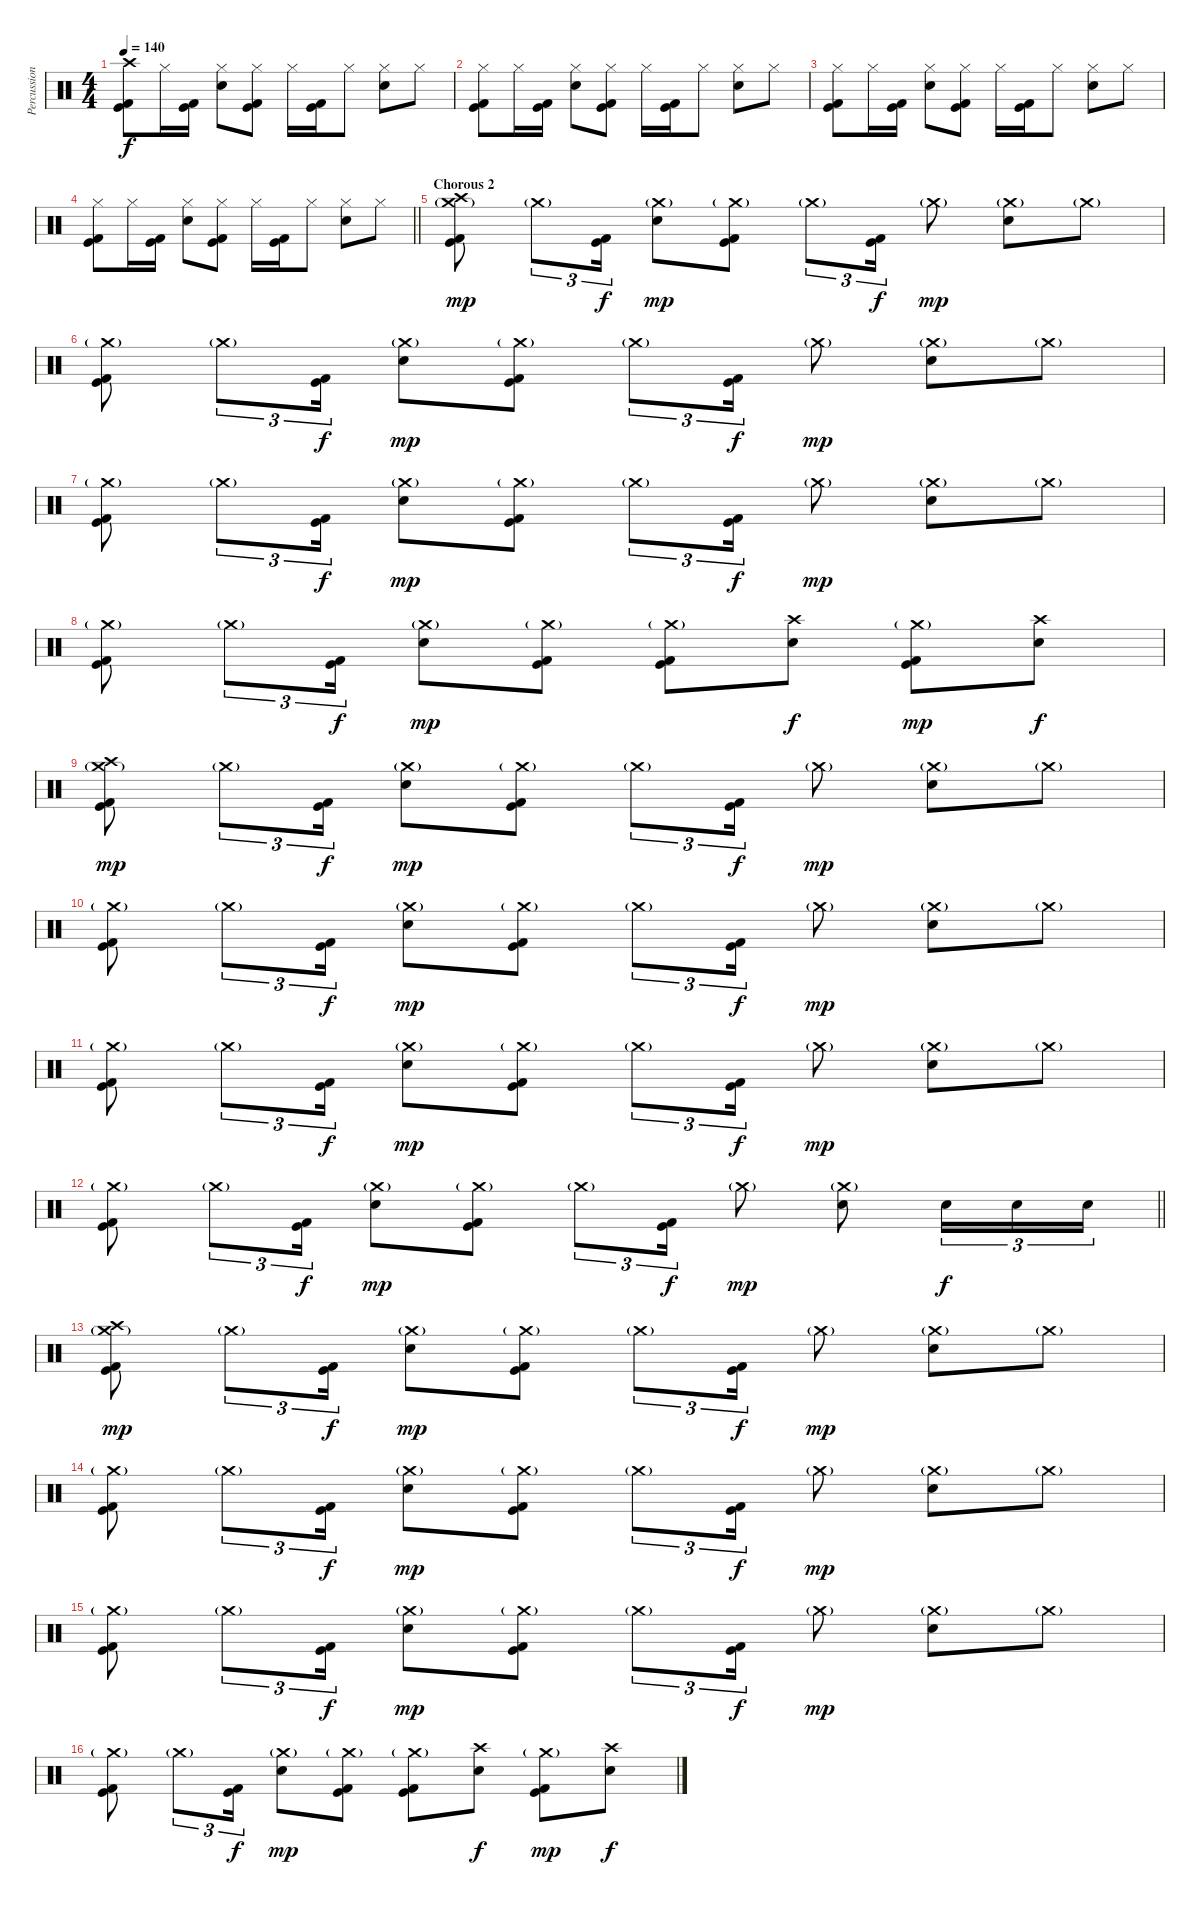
\track ("Percussion" "Percussion") {instrument percussion}
\staff {score}
\articulation defaults
\ts (4 4)
\tempo 140
\clef neutral
\ks c
("Crash high (hit)" "Kick (hit)" "Kick (hit) 2").8{dy f} "Hi-Hat (closed)".16 ("Kick (hit)" "Kick (hit) 2").16 ("Hi-Hat (closed)" "Electric Snare (hit)").8 ("Hi-Hat (closed)" "Kick (hit)" "Kick (hit) 2").8 "Hi-Hat (closed)".16 ("Kick (hit)" "Kick (hit) 2").16 "Hi-Hat (closed)".8 ("Hi-Hat (closed)" "Electric Snare (hit)").8 "Hi-Hat (closed)".8 |
("Hi-Hat (closed)" "Kick (hit)" "Kick (hit) 2").8 "Hi-Hat (closed)".16 ("Kick (hit)" "Kick (hit) 2").16 ("Hi-Hat (closed)" "Electric Snare (hit)").8 ("Hi-Hat (closed)" "Kick (hit)" "Kick (hit) 2").8 "Hi-Hat (closed)".16 ("Kick (hit)" "Kick (hit) 2").16 "Hi-Hat (closed)".8 ("Hi-Hat (closed)" "Electric Snare (hit)").8 "Hi-Hat (closed)".8 |
("Hi-Hat (closed)" "Kick (hit)" "Kick (hit) 2").8 "Hi-Hat (closed)".16 ("Kick (hit)" "Kick (hit) 2").16 ("Hi-Hat (closed)" "Electric Snare (hit)").8 ("Hi-Hat (closed)" "Kick (hit)" "Kick (hit) 2").8 "Hi-Hat (closed)".16 ("Kick (hit)" "Kick (hit) 2").16 "Hi-Hat (closed)".8 ("Hi-Hat (closed)" "Electric Snare (hit)").8 "Hi-Hat (closed)".8 |
\barLineRight lightlight
("Hi-Hat (closed)" "Kick (hit)" "Kick (hit) 2").8 "Hi-Hat (closed)".16 ("Kick (hit)" "Kick (hit) 2").16 ("Hi-Hat (closed)" "Electric Snare (hit)").8 ("Hi-Hat (closed)" "Kick (hit)" "Kick (hit) 2").8 "Hi-Hat (closed)".16 ("Kick (hit)" "Kick (hit) 2").16 "Hi-Hat (closed)".8 ("Hi-Hat (closed)" "Electric Snare (hit)").8 "Hi-Hat (closed)".8 |
\section ("" "Chorous 2")
("Crash medium (hit)"{g} "Crash high (hit)" "Kick (hit)" "Kick (hit) 2").8{dy mp} "Crash medium (hit)"{g}.8{tu (3 2)} ("Kick (hit)" "Kick (hit) 2").16{tu (3 2) dy f} ("Crash medium (hit)"{g} "Electric Snare (hit)").8{dy mp} ("Crash medium (hit)"{g} "Kick (hit)" "Kick (hit) 2").8 "Crash medium (hit)"{g}.8{tu (3 2)} ("Kick (hit)" "Kick (hit) 2").16{tu (3 2) dy f} "Crash medium (hit)"{g}.8{dy mp} ("Crash medium (hit)"{g} "Electric Snare (hit)").8 "Crash medium (hit)"{g}.8 |
("Crash medium (hit)"{g} "Kick (hit)" "Kick (hit) 2").8 "Crash medium (hit)"{g}.8{tu (3 2)} ("Kick (hit)" "Kick (hit) 2").16{tu (3 2) dy f} ("Crash medium (hit)"{g} "Electric Snare (hit)").8{dy mp} ("Crash medium (hit)"{g} "Kick (hit)" "Kick (hit) 2").8 "Crash medium (hit)"{g}.8{tu (3 2)} ("Kick (hit)" "Kick (hit) 2").16{tu (3 2) dy f} "Crash medium (hit)"{g}.8{dy mp} ("Crash medium (hit)"{g} "Electric Snare (hit)").8 "Crash medium (hit)"{g}.8 |
("Crash medium (hit)"{g} "Kick (hit)" "Kick (hit) 2").8 "Crash medium (hit)"{g}.8{tu (3 2)} ("Kick (hit)" "Kick (hit) 2").16{tu (3 2) dy f} ("Crash medium (hit)"{g} "Electric Snare (hit)").8{dy mp} ("Crash medium (hit)"{g} "Kick (hit)" "Kick (hit) 2").8 "Crash medium (hit)"{g}.8{tu (3 2)} ("Kick (hit)" "Kick (hit) 2").16{tu (3 2) dy f} "Crash medium (hit)"{g}.8{dy mp} ("Crash medium (hit)"{g} "Electric Snare (hit)").8 "Crash medium (hit)"{g}.8 |
("Crash medium (hit)"{g} "Kick (hit)" "Kick (hit) 2").8 "Crash medium (hit)"{g}.8{tu (3 2)} ("Kick (hit)" "Kick (hit) 2").16{tu (3 2) dy f} ("Crash medium (hit)"{g} "Electric Snare (hit)").8{dy mp} ("Crash medium (hit)"{g} "Kick (hit)" "Kick (hit) 2").8 ("Crash medium (hit)"{g} "Kick (hit)" "Kick (hit) 2").8 ("Crash high (hit)" "Electric Snare (hit)").8{dy f} ("Crash medium (hit)"{g} "Kick (hit)" "Kick (hit) 2").8{dy mp} ("Crash high (hit)" "Electric Snare (hit)").8{dy f} |
("Crash medium (hit)"{g} "Crash high (hit)" "Kick (hit)" "Kick (hit) 2").8{dy mp} "Crash medium (hit)"{g}.8{tu (3 2)} ("Kick (hit)" "Kick (hit) 2").16{tu (3 2) dy f} ("Crash medium (hit)"{g} "Electric Snare (hit)").8{dy mp} ("Crash medium (hit)"{g} "Kick (hit)" "Kick (hit) 2").8 "Crash medium (hit)"{g}.8{tu (3 2)} ("Kick (hit)" "Kick (hit) 2").16{tu (3 2) dy f} "Crash medium (hit)"{g}.8{dy mp} ("Crash medium (hit)"{g} "Electric Snare (hit)").8 "Crash medium (hit)"{g}.8 |
("Crash medium (hit)"{g} "Kick (hit)" "Kick (hit) 2").8 "Crash medium (hit)"{g}.8{tu (3 2)} ("Kick (hit)" "Kick (hit) 2").16{tu (3 2) dy f} ("Crash medium (hit)"{g} "Electric Snare (hit)").8{dy mp} ("Crash medium (hit)"{g} "Kick (hit)" "Kick (hit) 2").8 "Crash medium (hit)"{g}.8{tu (3 2)} ("Kick (hit)" "Kick (hit) 2").16{tu (3 2) dy f} "Crash medium (hit)"{g}.8{dy mp} ("Crash medium (hit)"{g} "Electric Snare (hit)").8 "Crash medium (hit)"{g}.8 |
("Crash medium (hit)"{g} "Kick (hit)" "Kick (hit) 2").8 "Crash medium (hit)"{g}.8{tu (3 2)} ("Kick (hit)" "Kick (hit) 2").16{tu (3 2) dy f} ("Crash medium (hit)"{g} "Electric Snare (hit)").8{dy mp} ("Crash medium (hit)"{g} "Kick (hit)" "Kick (hit) 2").8 "Crash medium (hit)"{g}.8{tu (3 2)} ("Kick (hit)" "Kick (hit) 2").16{tu (3 2) dy f} "Crash medium (hit)"{g}.8{dy mp} ("Crash medium (hit)"{g} "Electric Snare (hit)").8 "Crash medium (hit)"{g}.8 |
\barLineRight lightlight
("Crash medium (hit)"{g} "Kick (hit)" "Kick (hit) 2").8 "Crash medium (hit)"{g}.8{tu (3 2)} ("Kick (hit)" "Kick (hit) 2").16{tu (3 2) dy f} ("Crash medium (hit)"{g} "Electric Snare (hit)").8{dy mp} ("Crash medium (hit)"{g} "Kick (hit)" "Kick (hit) 2").8 "Crash medium (hit)"{g}.8{tu (3 2)} ("Kick (hit)" "Kick (hit) 2").16{tu (3 2) dy f} "Crash medium (hit)"{g}.8{dy mp} ("Crash medium (hit)"{g} "Electric Snare (hit)").8 "Electric Snare (hit)".16{tu (3 2) dy f} "Electric Snare (hit)".16{tu (3 2)} "Electric Snare (hit)".16{tu (3 2)} |
\section ("" "")
("Crash medium (hit)"{g} "Crash high (hit)" "Kick (hit)" "Kick (hit) 2").8{dy mp} "Crash medium (hit)"{g}.8{tu (3 2)} ("Kick (hit)" "Kick (hit) 2").16{tu (3 2) dy f} ("Crash medium (hit)"{g} "Electric Snare (hit)").8{dy mp} ("Crash medium (hit)"{g} "Kick (hit)" "Kick (hit) 2").8 "Crash medium (hit)"{g}.8{tu (3 2)} ("Kick (hit)" "Kick (hit) 2").16{tu (3 2) dy f} "Crash medium (hit)"{g}.8{dy mp} ("Crash medium (hit)"{g} "Electric Snare (hit)").8 "Crash medium (hit)"{g}.8 |
("Crash medium (hit)"{g} "Kick (hit)" "Kick (hit) 2").8 "Crash medium (hit)"{g}.8{tu (3 2)} ("Kick (hit)" "Kick (hit) 2").16{tu (3 2) dy f} ("Crash medium (hit)"{g} "Electric Snare (hit)").8{dy mp} ("Crash medium (hit)"{g} "Kick (hit)" "Kick (hit) 2").8 "Crash medium (hit)"{g}.8{tu (3 2)} ("Kick (hit)" "Kick (hit) 2").16{tu (3 2) dy f} "Crash medium (hit)"{g}.8{dy mp} ("Crash medium (hit)"{g} "Electric Snare (hit)").8 "Crash medium (hit)"{g}.8 |
("Crash medium (hit)"{g} "Kick (hit)" "Kick (hit) 2").8 "Crash medium (hit)"{g}.8{tu (3 2)} ("Kick (hit)" "Kick (hit) 2").16{tu (3 2) dy f} ("Crash medium (hit)"{g} "Electric Snare (hit)").8{dy mp} ("Crash medium (hit)"{g} "Kick (hit)" "Kick (hit) 2").8 "Crash medium (hit)"{g}.8{tu (3 2)} ("Kick (hit)" "Kick (hit) 2").16{tu (3 2) dy f} "Crash medium (hit)"{g}.8{dy mp} ("Crash medium (hit)"{g} "Electric Snare (hit)").8 "Crash medium (hit)"{g}.8 |
("Crash medium (hit)"{g} "Kick (hit)" "Kick (hit) 2").8 "Crash medium (hit)"{g}.8{tu (3 2)} ("Kick (hit)" "Kick (hit) 2").16{tu (3 2) dy f} ("Crash medium (hit)"{g} "Electric Snare (hit)").8{dy mp} ("Crash medium (hit)"{g} "Kick (hit)" "Kick (hit) 2").8 ("Crash medium (hit)"{g} "Kick (hit)" "Kick (hit) 2").8 ("Crash high (hit)" "Electric Snare (hit)").8{dy f} ("Crash medium (hit)"{g} "Kick (hit)" "Kick (hit) 2").8{dy mp} ("Crash high (hit)" "Electric Snare (hit)").8{dy f}
